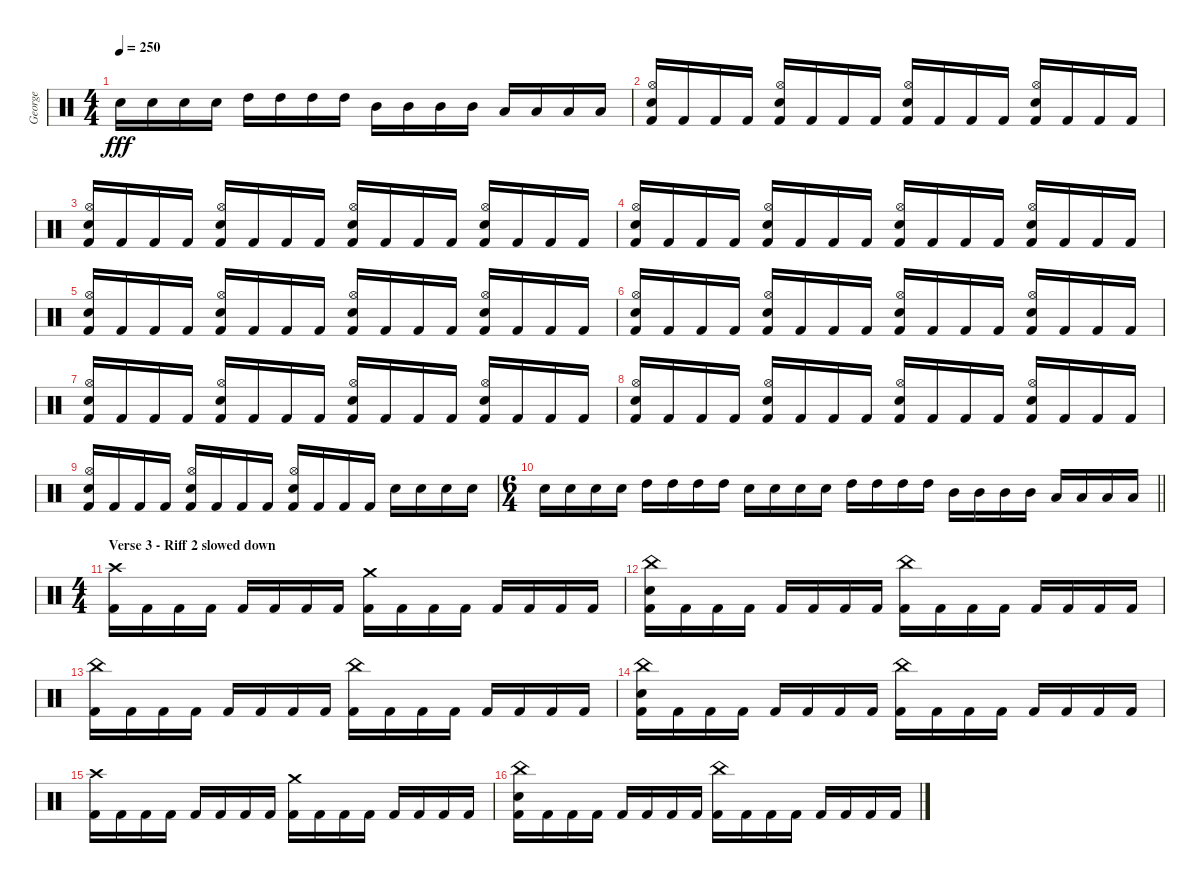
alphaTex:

\track ("George" "George") {instrument percussion}
\staff {score}
\articulation defaults
\ts (4 4)
\tempo 250
\clef neutral
\ks c "Snare (hit) 2".16{dy fff} "Snare (hit) 2".16 "Snare (hit) 2".16 "Snare (hit) 2".16 "High Tom (hit)".16 "High Tom (hit)".16 "High Tom (hit)".16 "High Tom (hit)".16 "Mid Tom (hit)".16 "Mid Tom (hit)".16 "Mid Tom (hit)".16 "Mid Tom (hit)".16 "Low Tom (hit)".16 "Low Tom (hit)".16 "Low Tom (hit)".16 "Low Tom (hit)".16
|
("Hi-Hat (open)" "Snare (hit) 2" "Kick (hit) 2").16 "Kick (hit) 2".16 "Kick (hit) 2".16 "Kick (hit) 2".16 ("Hi-Hat (open)" "Snare (hit) 2" "Kick (hit) 2").16 "Kick (hit) 2".16 "Kick (hit) 2".16 "Kick (hit) 2".16 ("Hi-Hat (open)" "Snare (hit) 2" "Kick (hit) 2").16 "Kick (hit) 2".16 "Kick (hit) 2".16 "Kick (hit) 2".16 ("Hi-Hat (open)" "Snare (hit) 2" "Kick (hit) 2").16 "Kick (hit) 2".16 "Kick (hit) 2".16 "Kick (hit) 2".16 |
("Hi-Hat (open)" "Snare (hit) 2" "Kick (hit) 2").16 "Kick (hit) 2".16 "Kick (hit) 2".16 "Kick (hit) 2".16 ("Hi-Hat (open)" "Snare (hit) 2" "Kick (hit) 2").16 "Kick (hit) 2".16 "Kick (hit) 2".16 "Kick (hit) 2".16 ("Hi-Hat (open)" "Snare (hit) 2" "Kick (hit) 2").16 "Kick (hit) 2".16 "Kick (hit) 2".16 "Kick (hit) 2".16 ("Hi-Hat (open)" "Snare (hit) 2" "Kick (hit) 2").16 "Kick (hit) 2".16 "Kick (hit) 2".16 "Kick (hit) 2".16 |
("Hi-Hat (open)" "Snare (hit) 2" "Kick (hit) 2").16 "Kick (hit) 2".16 "Kick (hit) 2".16 "Kick (hit) 2".16 ("Hi-Hat (open)" "Snare (hit) 2" "Kick (hit) 2").16 "Kick (hit) 2".16 "Kick (hit) 2".16 "Kick (hit) 2".16 ("Hi-Hat (open)" "Snare (hit) 2" "Kick (hit) 2").16 "Kick (hit) 2".16 "Kick (hit) 2".16 "Kick (hit) 2".16 ("Hi-Hat (open)" "Snare (hit) 2" "Kick (hit) 2").16 "Kick (hit) 2".16 "Kick (hit) 2".16 "Kick (hit) 2".16 |
("Hi-Hat (open)" "Snare (hit) 2" "Kick (hit) 2").16 "Kick (hit) 2".16 "Kick (hit) 2".16 "Kick (hit) 2".16 ("Hi-Hat (open)" "Snare (hit) 2" "Kick (hit) 2").16 "Kick (hit) 2".16 "Kick (hit) 2".16 "Kick (hit) 2".16 ("Hi-Hat (open)" "Snare (hit) 2" "Kick (hit) 2").16 "Kick (hit) 2".16 "Kick (hit) 2".16 "Kick (hit) 2".16 ("Hi-Hat (open)" "Snare (hit) 2" "Kick (hit) 2").16 "Kick (hit) 2".16 "Kick (hit) 2".16 "Kick (hit) 2".16 |
("Hi-Hat (open)" "Snare (hit) 2" "Kick (hit) 2").16 "Kick (hit) 2".16 "Kick (hit) 2".16 "Kick (hit) 2".16 ("Hi-Hat (open)" "Snare (hit) 2" "Kick (hit) 2").16 "Kick (hit) 2".16 "Kick (hit) 2".16 "Kick (hit) 2".16 ("Hi-Hat (open)" "Snare (hit) 2" "Kick (hit) 2").16 "Kick (hit) 2".16 "Kick (hit) 2".16 "Kick (hit) 2".16 ("Hi-Hat (open)" "Snare (hit) 2" "Kick (hit) 2").16 "Kick (hit) 2".16 "Kick (hit) 2".16 "Kick (hit) 2".16 |
("Hi-Hat (open)" "Snare (hit) 2" "Kick (hit) 2").16 "Kick (hit) 2".16 "Kick (hit) 2".16 "Kick (hit) 2".16 ("Hi-Hat (open)" "Snare (hit) 2" "Kick (hit) 2").16 "Kick (hit) 2".16 "Kick (hit) 2".16 "Kick (hit) 2".16 ("Hi-Hat (open)" "Snare (hit) 2" "Kick (hit) 2").16 "Kick (hit) 2".16 "Kick (hit) 2".16 "Kick (hit) 2".16 ("Hi-Hat (open)" "Snare (hit) 2" "Kick (hit) 2").16 "Kick (hit) 2".16 "Kick (hit) 2".16 "Kick (hit) 2".16 |
("Hi-Hat (open)" "Snare (hit) 2" "Kick (hit) 2").16 "Kick (hit) 2".16 "Kick (hit) 2".16 "Kick (hit) 2".16 ("Hi-Hat (open)" "Snare (hit) 2" "Kick (hit) 2").16 "Kick (hit) 2".16 "Kick (hit) 2".16 "Kick (hit) 2".16 ("Hi-Hat (open)" "Snare (hit) 2" "Kick (hit) 2").16 "Kick (hit) 2".16 "Kick (hit) 2".16 "Kick (hit) 2".16 ("Hi-Hat (open)" "Snare (hit) 2" "Kick (hit) 2").16 "Kick (hit) 2".16 "Kick (hit) 2".16 "Kick (hit) 2".16 |
("Hi-Hat (open)" "Snare (hit) 2" "Kick (hit) 2").16 "Kick (hit) 2".16 "Kick (hit) 2".16 "Kick (hit) 2".16 ("Hi-Hat (open)" "Snare (hit) 2" "Kick (hit) 2").16 "Kick (hit) 2".16 "Kick (hit) 2".16 "Kick (hit) 2".16 ("Hi-Hat (open)" "Snare (hit) 2" "Kick (hit) 2").16 "Kick (hit) 2".16 "Kick (hit) 2".16 "Kick (hit) 2".16 "Snare (hit) 2".16 "Snare (hit) 2".16 "Snare (hit) 2".16 "Snare (hit) 2".16 |
\ts (6 4)
\barLineRight lightlight "Snare (hit) 2".16 "Snare (hit) 2".16 "Snare (hit) 2".16 "Snare (hit) 2".16 "High Tom (hit)".16 "High Tom (hit)".16 "High Tom (hit)".16 "High Tom (hit)".16 "Snare (hit) 2".16 "Snare (hit) 2".16 "Snare (hit) 2".16 "Snare (hit) 2".16 "High Tom (hit)".16 "High Tom (hit)".16 "High Tom (hit)".16 "High Tom (hit)".16 "Mid Tom (hit)".16 "Mid Tom (hit)".16 "Mid Tom (hit)".16 "Mid Tom (hit)".16 "Low Tom (hit)".16 "Low Tom (hit)".16 "Low Tom (hit)".16 "Low Tom (hit)".16
|
\ts (4 4)
\section ("" "Verse 3 - Riff 2 slowed down")
("Crash high (hit)" "Kick (hit) 2").16 "Kick (hit) 2".16 "Kick (hit) 2".16 "Kick (hit) 2".16 "Kick (hit) 2".16 "Kick (hit) 2".16 "Kick (hit) 2".16 "Kick (hit) 2".16 ("Crash medium (hit)" "Kick (hit) 2").16 "Kick (hit) 2".16 "Kick (hit) 2".16 "Kick (hit) 2".16 "Kick (hit) 2".16 "Kick (hit) 2".16 "Kick (hit) 2".16 "Kick (hit) 2".16 |
("China (hit)" "Snare (hit) 2" "Kick (hit) 2").16 "Kick (hit) 2".16 "Kick (hit) 2".16 "Kick (hit) 2".16 "Kick (hit) 2".16 "Kick (hit) 2".16 "Kick (hit) 2".16 "Kick (hit) 2".16 ("China (hit)" "Kick (hit) 2").16 "Kick (hit) 2".16 "Kick (hit) 2".16 "Kick (hit) 2".16 "Kick (hit) 2".16 "Kick (hit) 2".16 "Kick (hit) 2".16 "Kick (hit) 2".16 |
("China (hit)" "Kick (hit) 2").16 "Kick (hit) 2".16 "Kick (hit) 2".16 "Kick (hit) 2".16 "Kick (hit) 2".16 "Kick (hit) 2".16 "Kick (hit) 2".16 "Kick (hit) 2".16 ("China (hit)" "Kick (hit) 2").16 "Kick (hit) 2".16 "Kick (hit) 2".16 "Kick (hit) 2".16 "Kick (hit) 2".16 "Kick (hit) 2".16 "Kick (hit) 2".16 "Kick (hit) 2".16 |
("China (hit)" "Snare (hit) 2" "Kick (hit) 2").16 "Kick (hit) 2".16 "Kick (hit) 2".16 "Kick (hit) 2".16 "Kick (hit) 2".16 "Kick (hit) 2".16 "Kick (hit) 2".16 "Kick (hit) 2".16 ("China (hit)" "Kick (hit) 2").16 "Kick (hit) 2".16 "Kick (hit) 2".16 "Kick (hit) 2".16 "Kick (hit) 2".16 "Kick (hit) 2".16 "Kick (hit) 2".16 "Kick (hit) 2".16 |
("Crash high (hit)" "Kick (hit) 2").16 "Kick (hit) 2".16 "Kick (hit) 2".16 "Kick (hit) 2".16 "Kick (hit) 2".16 "Kick (hit) 2".16 "Kick (hit) 2".16 "Kick (hit) 2".16 ("Crash medium (hit)" "Kick (hit) 2").16 "Kick (hit) 2".16 "Kick (hit) 2".16 "Kick (hit) 2".16 "Kick (hit) 2".16 "Kick (hit) 2".16 "Kick (hit) 2".16 "Kick (hit) 2".16 |
("China (hit)" "Snare (hit) 2" "Kick (hit) 2").16 "Kick (hit) 2".16 "Kick (hit) 2".16 "Kick (hit) 2".16 "Kick (hit) 2".16 "Kick (hit) 2".16 "Kick (hit) 2".16 "Kick (hit) 2".16 ("China (hit)" "Kick (hit) 2").16 "Kick (hit) 2".16 "Kick (hit) 2".16 "Kick (hit) 2".16 "Kick (hit) 2".16 "Kick (hit) 2".16 "Kick (hit) 2".16 "Kick (hit) 2".16
